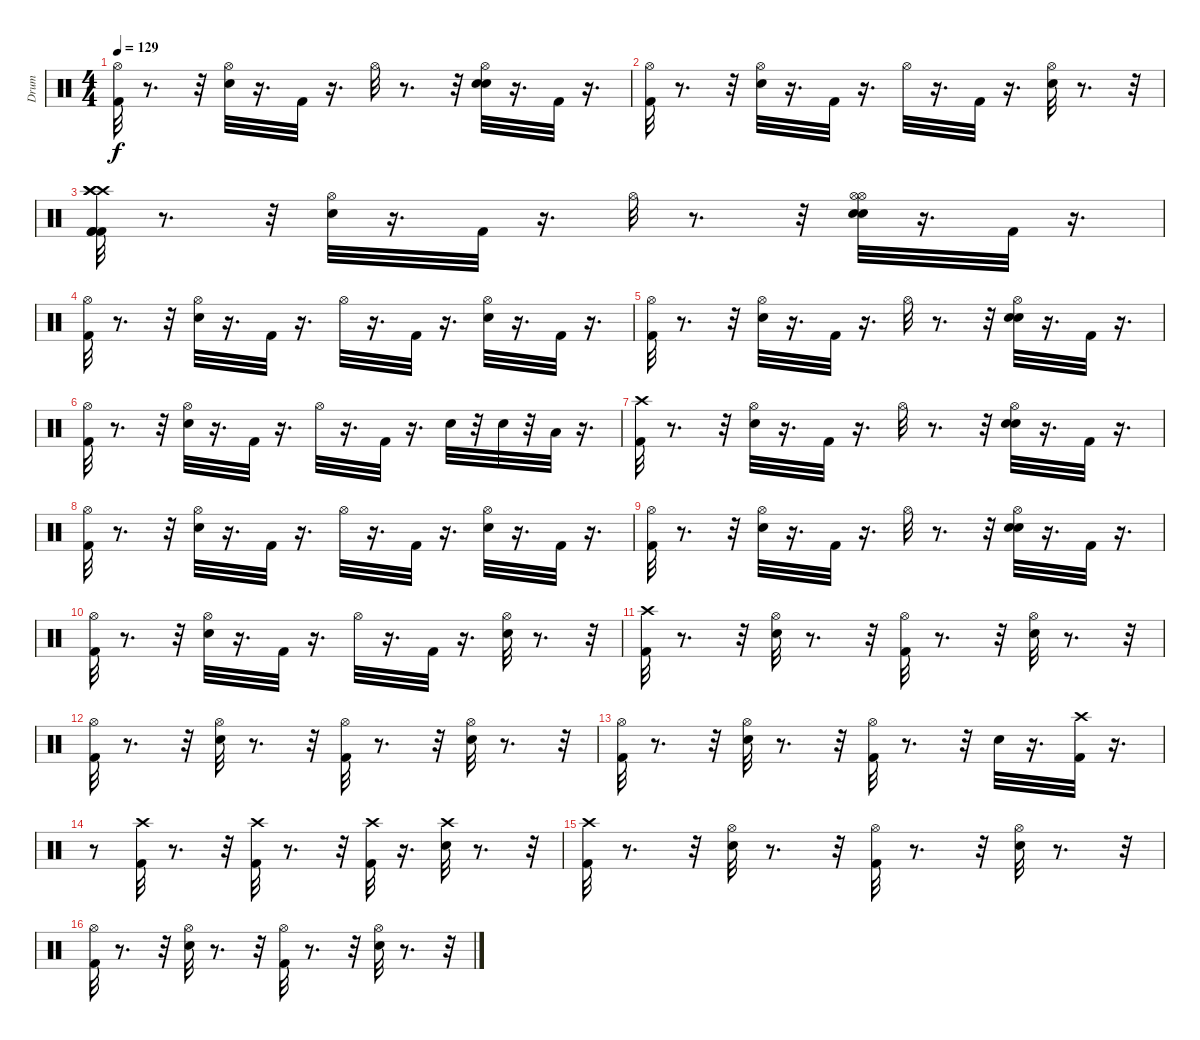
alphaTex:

\track ("Drum" "Drum") {instrument percussion}
\staff {score}
\articulation defaults
\ts (4 4)
\tempo 129
\clef neutral
\ks c
("Hi-Hat (open)" "Kick (hit) 2").32{dy f} r.8{d} r.32 ("Snare (hit) 2" "Hi-Hat (open)").32 r.16{d} "Kick (hit) 2".32 r.16{d} "Hi-Hat (open)".32 r.8{d} r.32 ("Snare (hit) 2" "Snare (hit) 2" "Hi-Hat (open)").32 r.16{d} "Kick (hit) 2".32 r.16{d} |
("Hi-Hat (open)" "Kick (hit) 2").32 r.8{d} r.32 ("Snare (hit) 2" "Hi-Hat (open)").32 r.16{d} "Kick (hit) 2".32 r.16{d} "Hi-Hat (open)".32 r.16{d} "Kick (hit) 2".32 r.16{d} ("Snare (hit) 2" "Hi-Hat (open)").32 r.8{d} r.32 |
("Kick (hit) 2" "Crash high (hit)" "Kick (hit) 2" "Crash high (hit)" "Kick (hit) 2" "Crash high (hit)").32 r.8{d} r.32 ("Snare (hit) 2" "Hi-Hat (open)").32 r.16{d} "Kick (hit) 2".32 r.16{d} "Hi-Hat (open)".32 r.8{d} r.32 ("Snare (hit) 2" "Hi-Hat (open)" "Snare (hit) 2" "Hi-Hat (open)").32 r.16{d} "Kick (hit) 2".32 r.16{d} |
("Kick (hit) 2" "Hi-Hat (open)").32 r.8{d} r.32 ("Snare (hit) 2" "Hi-Hat (open)").32 r.16{d} "Kick (hit) 2".32 r.16{d} "Hi-Hat (open)".32 r.16{d} "Kick (hit) 2".32 r.16{d} ("Snare (hit) 2" "Hi-Hat (open)").32 r.16{d} "Kick (hit) 2".32 r.16{d} |
("Hi-Hat (open)" "Kick (hit) 2").32 r.8{d} r.32 ("Snare (hit) 2" "Hi-Hat (open)").32 r.16{d} "Kick (hit) 2".32 r.16{d} "Hi-Hat (open)".32 r.8{d} r.32 ("Snare (hit) 2" "Hi-Hat (open)" "Snare (hit) 2").32 r.16{d} "Kick (hit) 2".32 r.16{d} |
("Kick (hit) 2" "Hi-Hat (open)").32 r.8{d} r.32 ("Snare (hit) 2" "Hi-Hat (open)").32 r.16{d} "Kick (hit) 2".32 r.16{d} "Hi-Hat (open)".32 r.16{d} "Kick (hit) 2".32 r.16{d} "Snare (hit) 2".32 r.32 "Snare (hit) 2".32 r.32 "Low Floor Tom (hit)".32 r.16{d} |
("Kick (hit) 2" "Crash high (hit)").32 r.8{d} r.32 ("Snare (hit) 2" "Hi-Hat (open)").32 r.16{d} "Kick (hit) 2".32 r.16{d} "Hi-Hat (open)".32 r.8{d} r.32 ("Snare (hit) 2" "Snare (hit) 2" "Hi-Hat (open)").32 r.16{d} "Kick (hit) 2".32 r.16{d} |
("Kick (hit) 2" "Hi-Hat (open)").32 r.8{d} r.32 ("Snare (hit) 2" "Hi-Hat (open)").32 r.16{d} "Kick (hit) 2".32 r.16{d} "Hi-Hat (open)".32 r.16{d} "Kick (hit) 2".32 r.16{d} ("Hi-Hat (open)" "Snare (hit) 2").32 r.16{d} "Kick (hit) 2".32 r.16{d} |
("Hi-Hat (open)" "Kick (hit) 2").32 r.8{d} r.32 ("Snare (hit) 2" "Hi-Hat (open)").32 r.16{d} "Kick (hit) 2".32 r.16{d} "Hi-Hat (open)".32 r.8{d} r.32 ("Snare (hit) 2" "Snare (hit) 2" "Hi-Hat (open)").32 r.16{d} "Kick (hit) 2".32 r.16{d} |
("Hi-Hat (open)" "Kick (hit) 2").32 r.8{d} r.32 ("Snare (hit) 2" "Hi-Hat (open)").32 r.16{d} "Kick (hit) 2".32 r.16{d} "Hi-Hat (open)".32 r.16{d} "Kick (hit) 2".32 r.16{d} ("Snare (hit) 2" "Hi-Hat (open)").32 r.8{d} r.32 |
("Kick (hit) 2" "Crash high (hit)").32 r.8{d} r.32 ("Snare (hit) 2" "Hi-Hat (open)").32 r.8{d} r.32 ("Kick (hit) 2" "Hi-Hat (open)").32 r.8{d} r.32 ("Hi-Hat (open)" "Snare (hit) 2").32 r.8{d} r.32 |
("Kick (hit) 2" "Hi-Hat (open)").32 r.8{d} r.32 ("Snare (hit) 2" "Hi-Hat (open)").32 r.8{d} r.32 ("Kick (hit) 2" "Hi-Hat (open)").32 r.8{d} r.32 ("Hi-Hat (open)" "Snare (hit) 2").32 r.8{d} r.32 |
("Kick (hit) 2" "Hi-Hat (open)").32 r.8{d} r.32 ("Hi-Hat (open)" "Snare (hit) 2").32 r.8{d} r.32 ("Kick (hit) 2" "Hi-Hat (open)").32 r.8{d} r.32 "Snare (hit) 2".32 r.16{d} ("Kick (hit) 2" "Crash high (hit)").32 r.16{d} |
r.8 ("Kick (hit) 2" "Crash high (hit)").32 r.8{d} r.32 ("Kick (hit) 2" "Crash high (hit)").32 r.8{d} r.32 ("Kick (hit) 2" "Crash high (hit)").32 r.16{d} ("Snare (hit) 2" "Crash high (hit)").32 r.8{d} r.32 |
("Crash high (hit)" "Kick (hit) 2").32 r.8{d} r.32 ("Hi-Hat (open)" "Snare (hit) 2").32 r.8{d} r.32 ("Hi-Hat (open)" "Kick (hit) 2").32 r.8{d} r.32 ("Hi-Hat (open)" "Snare (hit) 2").32 r.8{d} r.32 |
("Kick (hit) 2" "Hi-Hat (open)").32 r.8{d} r.32 ("Snare (hit) 2" "Hi-Hat (open)").32 r.8{d} r.32 ("Kick (hit) 2" "Hi-Hat (open)").32 r.8{d} r.32 ("Hi-Hat (open)" "Snare (hit) 2").32 r.8{d} r.32
